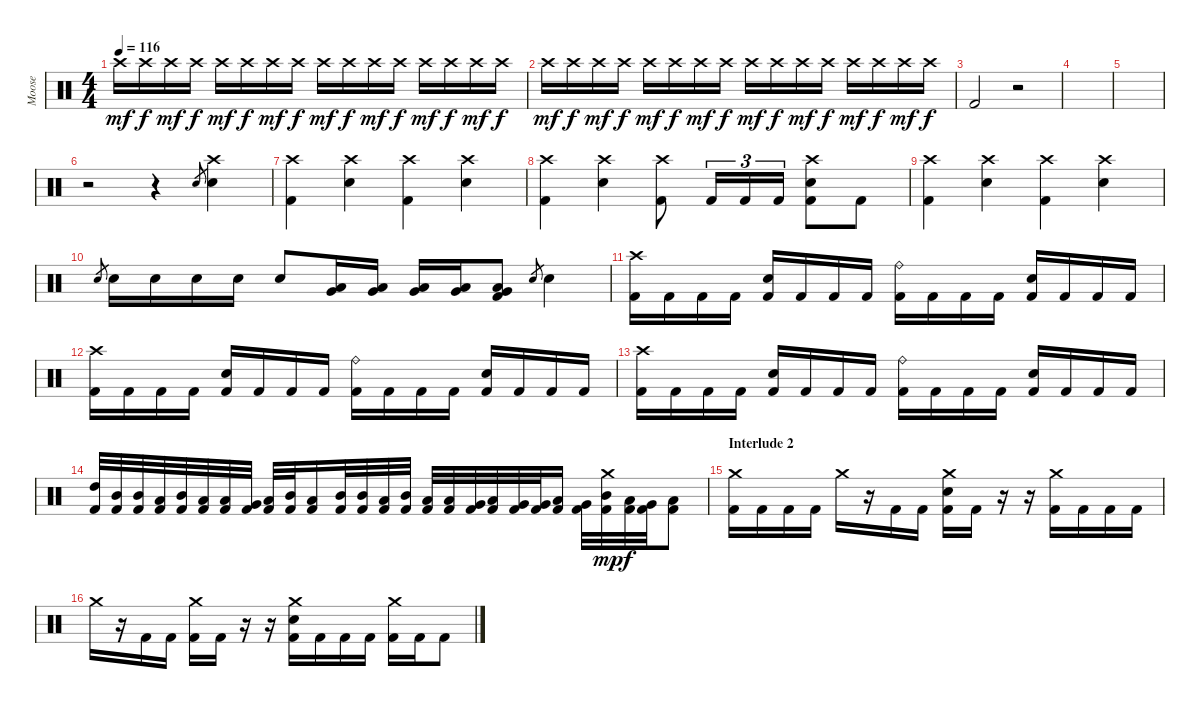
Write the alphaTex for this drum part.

\track ("Moose" "Moose") {instrument percussion}
\staff {score}
\articulation defaults
\ts (4 4)
\tempo 116
\clef neutral
\ks c "Crash high (hit)".16{dy mf} "Crash high (hit)".16{dy f} "Crash high (hit)".16{dy mf} "Crash high (hit)".16{dy f} "Crash high (hit)".16{dy mf} "Crash high (hit)".16{dy f} "Crash high (hit)".16{dy mf} "Crash high (hit)".16{dy f} "Crash high (hit)".16{dy mf} "Crash high (hit)".16{dy f} "Crash high (hit)".16{dy mf} "Crash high (hit)".16{dy f} "Crash high (hit)".16{dy mf} "Crash high (hit)".16{dy f} "Crash high (hit)".16{dy mf} "Crash high (hit)".16{dy f}
|
"Crash high (hit)".16{dy mf} "Crash high (hit)".16{dy f} "Crash high (hit)".16{dy mf} "Crash high (hit)".16{dy f} "Crash high (hit)".16{dy mf} "Crash high (hit)".16{dy f} "Crash high (hit)".16{dy mf} "Crash high (hit)".16{dy f} "Crash high (hit)".16{dy mf} "Crash high (hit)".16{dy f} "Crash high (hit)".16{dy mf} "Crash high (hit)".16{dy f} "Crash high (hit)".16{dy mf} "Crash high (hit)".16{dy f} "Crash high (hit)".16{dy mf} "Crash high (hit)".16{dy f} |
"Kick (hit) 2".2{volume 14} r.2 |
|
|
r.2 r.4 "Snare (hit) 2".8{gr} ("Snare (hit) 2" "Crash high (hit)").4 |
("Kick (hit) 2" "Crash high (hit)").4 ("Snare (hit) 2" "Crash high (hit)").4 ("Kick (hit) 2" "Crash high (hit)").4 ("Snare (hit) 2" "Crash high (hit)").4 |
("Kick (hit) 2" "Crash high (hit)").4 ("Snare (hit) 2" "Crash high (hit)").4 ("Kick (hit) 2" "Crash high (hit)").8 "Kick (hit) 2".16{tu (3 2)} "Kick (hit) 2".16{tu (3 2)} "Kick (hit) 2".16{tu (3 2)} ("Kick (hit) 2" "Snare (hit) 2" "Crash high (hit)").8 "Kick (hit) 2".8 |
("Kick (hit) 2" "Crash high (hit)").4 ("Snare (hit) 2" "Crash high (hit)").4 ("Kick (hit) 2" "Crash high (hit)").4 ("Snare (hit) 2" "Crash high (hit)").4 |
"Snare (hit) 2".8{gr} "Snare (hit) 2".16 "Snare (hit) 2".16 "Snare (hit) 2".16 "Snare (hit) 2".16 "Snare (hit) 2".8 ("Low Tom (hit)" "Very Low Tom (hit)").16 ("Low Tom (hit)" "Very Low Tom (hit)").16 ("Low Tom (hit)" "Very Low Tom (hit)").16 ("Low Tom (hit)" "Very Low Tom (hit)").16 ("Kick (hit) 2" "Very Low Tom (hit)" "Low Floor Tom (hit)").8 "Snare (hit) 2".8{gr} "Snare (hit) 2".4 |
("Kick (hit) 2" "Crash high (hit)").16 "Kick (hit) 2".16 "Kick (hit) 2".16 "Kick (hit) 2".16 ("Kick (hit) 2" "Snare (hit) 2").16 "Kick (hit) 2".16 "Kick (hit) 2".16 "Kick (hit) 2".16 ("Kick (hit) 2" "Ride (bell)").16 "Kick (hit) 2".16 "Kick (hit) 2".16 "Kick (hit) 2".16 ("Kick (hit) 2" "Snare (hit) 2").16 "Kick (hit) 2".16 "Kick (hit) 2".16 "Kick (hit) 2".16 |
("Kick (hit) 2" "Crash high (hit)").16 "Kick (hit) 2".16 "Kick (hit) 2".16 "Kick (hit) 2".16 ("Kick (hit) 2" "Snare (hit) 2").16 "Kick (hit) 2".16 "Kick (hit) 2".16 "Kick (hit) 2".16 ("Kick (hit) 2" "Ride (bell)").16 "Kick (hit) 2".16 "Kick (hit) 2".16 "Kick (hit) 2".16 ("Kick (hit) 2" "Snare (hit) 2").16 "Kick (hit) 2".16 "Kick (hit) 2".16 "Kick (hit) 2".16 |
("Kick (hit) 2" "Crash high (hit)").16 "Kick (hit) 2".16 "Kick (hit) 2".16 "Kick (hit) 2".16 ("Kick (hit) 2" "Snare (hit) 2").16 "Kick (hit) 2".16 "Kick (hit) 2".16 "Kick (hit) 2".16 ("Kick (hit) 2" "Ride (bell)").16 "Kick (hit) 2".16 "Kick (hit) 2".16 "Kick (hit) 2".16 ("Kick (hit) 2" "Snare (hit) 2").16 "Kick (hit) 2".16 "Kick (hit) 2".16 "Kick (hit) 2".16 |
("Kick (hit) 2" "High Tom (hit)").32 ("Kick (hit) 2" "Mid Tom (hit)").32 ("Kick (hit) 2" "Mid Tom (hit)").32 ("Kick (hit) 2" "Low Tom (hit)").32 ("Kick (hit) 2" "Mid Tom (hit)").32 ("Kick (hit) 2" "Low Tom (hit)").32 ("Kick (hit) 2" "Low Tom (hit)").32 ("Kick (hit) 2" "Very Low Tom (hit)").32 ("Kick (hit) 2" "Low Tom (hit)").32 ("Kick (hit) 2" "Mid Tom (hit)").32 ("Kick (hit) 2" "Low Tom (hit)").16 ("Kick (hit) 2" "Mid Tom (hit)").32 ("Kick (hit) 2" "Mid Tom (hit)").32 ("Kick (hit) 2" "Low Tom (hit)").32 ("Kick (hit) 2" "Mid Tom (hit)").32 ("Kick (hit) 2" "Low Tom (hit)").32 ("Kick (hit) 2" "Low Tom (hit)").32 ("Kick (hit) 2" "Very Low Tom (hit)").32 ("Kick (hit) 2" "Low Tom (hit)").32 ("Kick (hit) 2" "Very Low Tom (hit)").32 ("Kick (hit) 2" "Very Low Tom (hit)").32 ("Kick (hit) 2" "Low Floor Tom (hit)").16 ("Kick (hit) 2" "Very Low Tom (hit)").32 ("Kick (hit) 2" "Mid Tom (hit)" "Crash medium (hit)").32{dy mp} ("Kick (hit) 2" "Low Tom (hit)").32{dy f} ("Kick (hit) 2" "Very Low Tom (hit)").32 ("Kick (hit) 2" "Low Floor Tom (hit)").8 |
\section ("" "Interlude 2")
("Kick (hit) 2" "Crash medium (hit)").16 "Kick (hit) 2".16 "Kick (hit) 2".16 "Kick (hit) 2".16 "Crash medium (hit)".16 r.16 "Kick (hit) 2".16 "Kick (hit) 2".16 ("Kick (hit) 2" "Snare (hit) 2" "Crash medium (hit)").16 "Kick (hit) 2".16 r.16 r.16 ("Kick (hit) 2" "Crash medium (hit)").16 "Kick (hit) 2".16 "Kick (hit) 2".16 "Kick (hit) 2".16 |
"Crash medium (hit)".16 r.16 "Kick (hit) 2".16 "Kick (hit) 2".16 ("Kick (hit) 2" "Crash medium (hit)").16 "Kick (hit) 2".16 r.16 r.16 ("Kick (hit) 2" "Snare (hit) 2" "Crash medium (hit)").16 "Kick (hit) 2".16 "Kick (hit) 2".16 "Kick (hit) 2".16 ("Kick (hit) 2" "Crash medium (hit)").16 "Kick (hit) 2".16 "Kick (hit) 2".8
